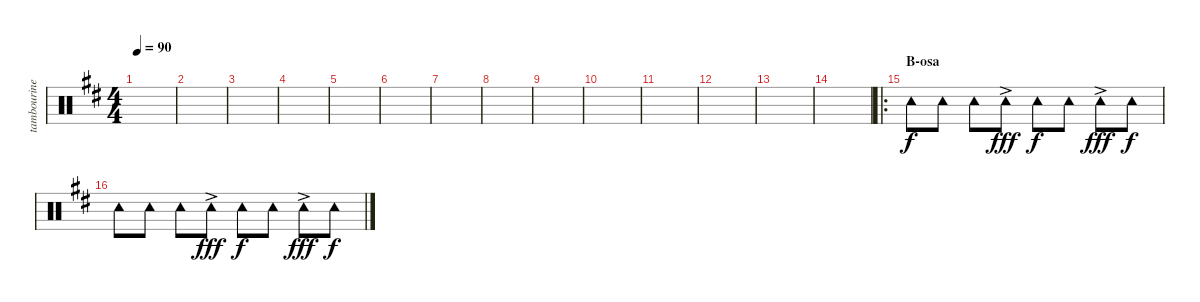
\track ("tambourine" "tambourine") {instrument percussion}
\staff {score}
\articulation defaults
\ts (4 4)
\tempo 90
\clef neutral
\ks d
|
|
|
|
|
|
|
|
|
|
|
|
|
|
\ro
\section ("" "B-osa")
"Tambourine (hit)".8 "Tambourine (hit)".8 "Tambourine (hit)".8 "Tambourine (hit)"{ac}.8{dy fff} "Tambourine (hit)".8{dy f} "Tambourine (hit)".8 "Tambourine (hit)"{ac}.8{dy fff} "Tambourine (hit)".8{dy f} |
"Tambourine (hit)".8 "Tambourine (hit)".8 "Tambourine (hit)".8 "Tambourine (hit)"{ac}.8{dy fff} "Tambourine (hit)".8{dy f} "Tambourine (hit)".8 "Tambourine (hit)"{ac}.8{dy fff} "Tambourine (hit)".8{dy f}
